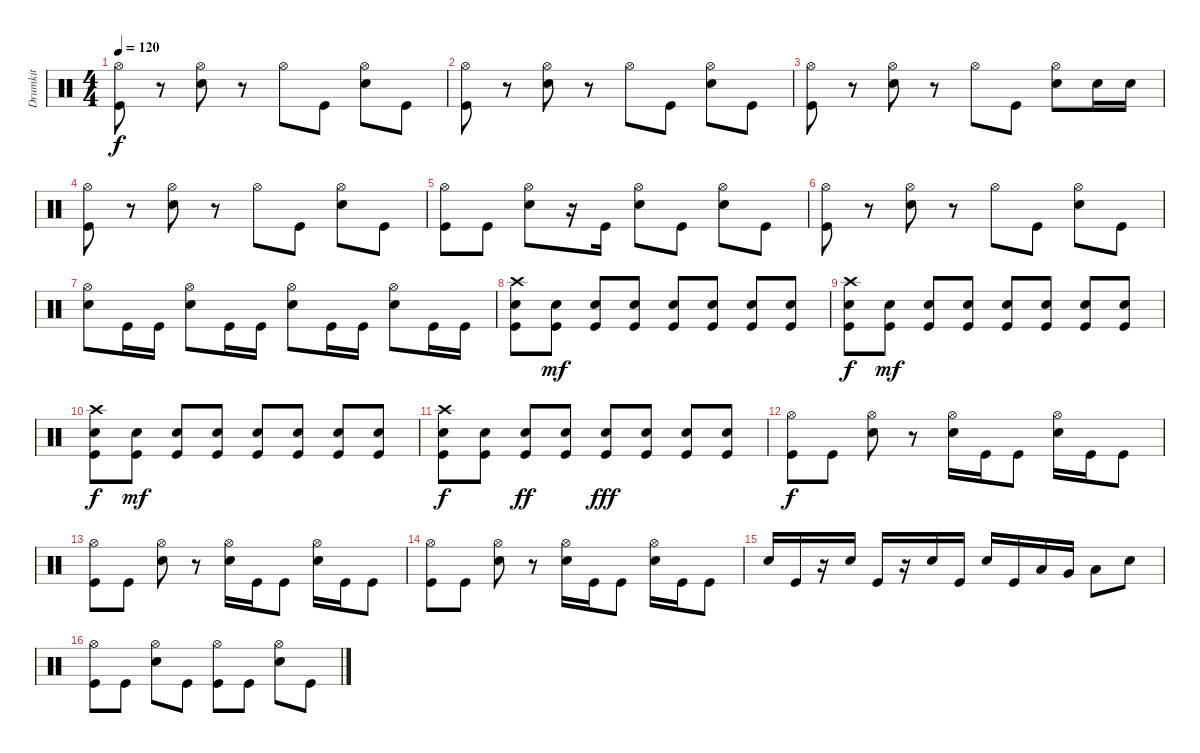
\track ("Drumkit" "Drumkit") {instrument percussion}
\staff {score}
\articulation defaults
\ts (4 4)
\tempo 120
\clef neutral
\ks c
("Kick (hit)" "Hi-Hat (open)").8{dy f} r.8 ("Snare (hit) 2" "Hi-Hat (open)").8 r.8 "Hi-Hat (open)".8 "Kick (hit)".8 ("Snare (hit) 2" "Hi-Hat (open)").8 "Kick (hit)".8 |
("Kick (hit)" "Hi-Hat (open)").8 r.8 ("Snare (hit) 2" "Hi-Hat (open)").8 r.8 "Hi-Hat (open)".8 "Kick (hit)".8 ("Snare (hit) 2" "Hi-Hat (open)").8 "Kick (hit)".8 |
("Kick (hit)" "Hi-Hat (open)").8 r.8 ("Snare (hit) 2" "Hi-Hat (open)").8 r.8 "Hi-Hat (open)".8 "Kick (hit)".8 ("Snare (hit) 2" "Hi-Hat (open)").8 "Snare (hit) 2".16 "Snare (hit) 2".16 |
("Kick (hit)" "Hi-Hat (open)").8 r.8 ("Snare (hit) 2" "Hi-Hat (open)").8 r.8 "Hi-Hat (open)".8 "Kick (hit)".8 ("Snare (hit) 2" "Hi-Hat (open)").8 "Kick (hit)".8 |
("Kick (hit)" "Hi-Hat (open)").8 "Kick (hit)".8 ("Snare (hit) 2" "Hi-Hat (open)").8 r.16 "Kick (hit)".16 ("Hi-Hat (open)" "Snare (hit) 2").8 "Kick (hit)".8 ("Snare (hit) 2" "Hi-Hat (open)").8 "Kick (hit)".8 |
("Kick (hit)" "Hi-Hat (open)").8 r.8 ("Snare (hit) 2" "Hi-Hat (open)").8 r.8 "Hi-Hat (open)".8 "Kick (hit)".8 ("Snare (hit) 2" "Hi-Hat (open)").8 "Kick (hit)".8 |
("Snare (hit) 2" "Hi-Hat (open)").8 "Kick (hit)".16 "Kick (hit)".16 ("Snare (hit) 2" "Hi-Hat (open)").8 "Kick (hit)".16 "Kick (hit)".16 ("Snare (hit) 2" "Hi-Hat (open)").8 "Kick (hit)".16 "Kick (hit)".16 ("Snare (hit) 2" "Hi-Hat (open)").8 "Kick (hit)".16 "Kick (hit)".16 |
("Kick (hit)" "Snare (hit) 2" "Crash high (hit)").8 ("Kick (hit)" "Snare (hit) 2").8{dy mf} ("Kick (hit)" "Snare (hit) 2").8 ("Kick (hit)" "Snare (hit) 2").8 ("Kick (hit)" "Snare (hit) 2").8 ("Kick (hit)" "Snare (hit) 2").8 ("Kick (hit)" "Snare (hit) 2").8 ("Kick (hit)" "Snare (hit) 2").8 |
("Kick (hit)" "Snare (hit) 2" "Crash high (hit)").8{dy f} ("Kick (hit)" "Snare (hit) 2").8{dy mf} ("Kick (hit)" "Snare (hit) 2").8 ("Kick (hit)" "Snare (hit) 2").8 ("Kick (hit)" "Snare (hit) 2").8 ("Kick (hit)" "Snare (hit) 2").8 ("Kick (hit)" "Snare (hit) 2").8 ("Kick (hit)" "Snare (hit) 2").8 |
("Kick (hit)" "Snare (hit) 2" "Crash high (hit)").8{dy f} ("Kick (hit)" "Snare (hit) 2").8{dy mf} ("Kick (hit)" "Snare (hit) 2").8 ("Kick (hit)" "Snare (hit) 2").8 ("Kick (hit)" "Snare (hit) 2").8 ("Kick (hit)" "Snare (hit) 2").8 ("Kick (hit)" "Snare (hit) 2").8 ("Kick (hit)" "Snare (hit) 2").8 |
("Kick (hit)" "Snare (hit) 2" "Crash high (hit)").8{dy f} ("Kick (hit)" "Snare (hit) 2").8 ("Kick (hit)" "Snare (hit) 2").8{dy ff} ("Kick (hit)" "Snare (hit) 2").8 ("Kick (hit)" "Snare (hit) 2").8{dy fff} ("Kick (hit)" "Snare (hit) 2").8 ("Kick (hit)" "Snare (hit) 2").8 ("Kick (hit)" "Snare (hit) 2").8 |
("Kick (hit)" "Hi-Hat (open)").8{dy f} "Kick (hit)".8 ("Snare (hit) 2" "Hi-Hat (open)").8 r.8 ("Snare (hit) 2" "Hi-Hat (open)").16 "Kick (hit)".16 "Kick (hit)".8 ("Snare (hit) 2" "Hi-Hat (open)").16 "Kick (hit)".16 "Kick (hit)".8 |
("Kick (hit)" "Hi-Hat (open)").8 "Kick (hit)".8 ("Snare (hit) 2" "Hi-Hat (open)").8 r.8 ("Snare (hit) 2" "Hi-Hat (open)").16 "Kick (hit)".16 "Kick (hit)".8 ("Snare (hit) 2" "Hi-Hat (open)").16 "Kick (hit)".16 "Kick (hit)".8 |
("Kick (hit)" "Hi-Hat (open)").8 "Kick (hit)".8 ("Snare (hit) 2" "Hi-Hat (open)").8 r.8 ("Snare (hit) 2" "Hi-Hat (open)").16 "Kick (hit)".16 "Kick (hit)".8 ("Snare (hit) 2" "Hi-Hat (open)").16 "Kick (hit)".16 "Kick (hit)".8 |
"Snare (hit) 2".16 "Kick (hit)".16 r.16 "Snare (hit) 2".16 "Kick (hit)".16 r.16 "Snare (hit) 2".16 "Kick (hit)".16 "Snare (hit) 2".16 "Kick (hit)".16 "Low Tom (hit)".16 "Very Low Tom (hit)".16 "Low Floor Tom (hit)".8 "Snare (hit) 2".8 |
("Kick (hit)" "Hi-Hat (open)").8 "Kick (hit)".8 ("Snare (hit) 2" "Hi-Hat (open)").8 "Kick (hit)".8 ("Kick (hit)" "Hi-Hat (open)").8 "Kick (hit)".8 ("Snare (hit) 2" "Hi-Hat (open)").8 "Kick (hit)".8
